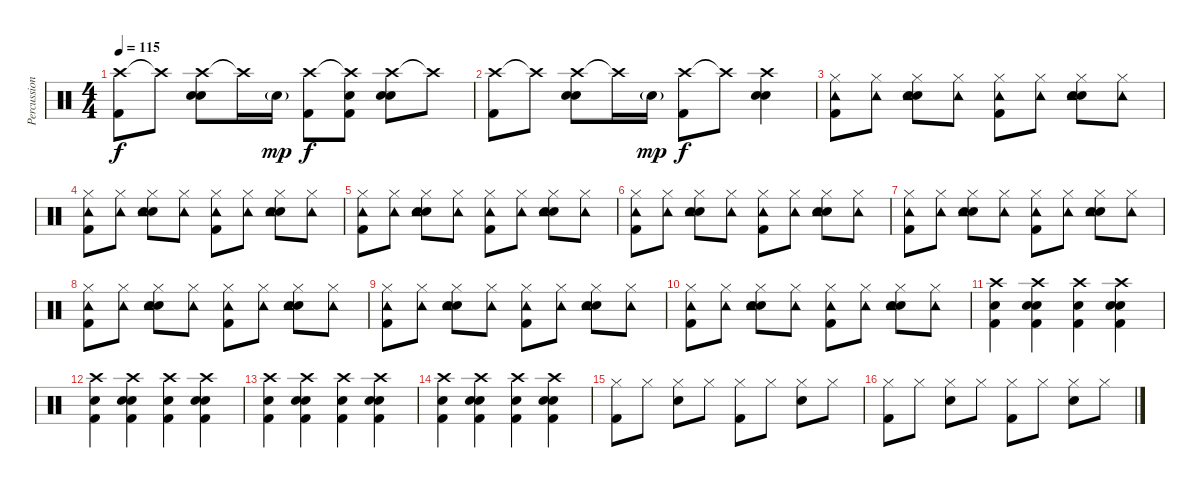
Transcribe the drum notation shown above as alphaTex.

\track ("Percussion" "Percussion") {instrument percussion}
\staff {score}
\articulation defaults
\ts (4 4)
\tempo 115
\clef neutral
\ks c
("Crash high (hit)" "Kick (hit) 2").8{dy f} "Crash high (hit)"{t}.8 ("Crash high (hit)" "Hand Clap (hit)" "Snare (hit) 2").8 "Crash high (hit)"{t}.16 "Snare (hit) 2"{g}.16{dy mp} ("Crash high (hit)" "Kick (hit) 2").8{dy f} ("Crash high (hit)"{t} "Hand Clap (hit)" "Kick (hit) 2").8 ("Crash high (hit)" "Hand Clap (hit)" "Snare (hit) 2").8 "Crash high (hit)"{t}.8 |
("Crash high (hit)" "Kick (hit) 2").8 "Crash high (hit)"{t}.8 ("Crash high (hit)" "Hand Clap (hit)" "Snare (hit) 2").8 "Crash high (hit)"{t}.16 "Snare (hit) 2"{g}.16{dy mp} ("Crash high (hit)" "Kick (hit) 2").8{dy f} "Crash high (hit)"{t}.8 ("Crash high (hit)" "Hand Clap (hit)" "Snare (hit) 2").4 |
("Hi-Hat (closed)" "Tambourine (hit)" "Kick (hit) 2").8 ("Hi-Hat (closed)" "Tambourine (hit)").8 ("Hi-Hat (closed)" "Hand Clap (hit)" "Snare (hit) 2" "Tambourine (hit)").8 ("Hi-Hat (closed)" "Tambourine (hit)").8 ("Hi-Hat (closed)" "Tambourine (hit)" "Kick (hit) 2").8 ("Hi-Hat (closed)" "Tambourine (hit)").8 ("Hi-Hat (closed)" "Hand Clap (hit)" "Snare (hit) 2" "Tambourine (hit)").8 ("Hi-Hat (closed)" "Tambourine (hit)").8 |
("Hi-Hat (closed)" "Tambourine (hit)" "Kick (hit) 2").8 ("Hi-Hat (closed)" "Tambourine (hit)").8 ("Hi-Hat (closed)" "Hand Clap (hit)" "Snare (hit) 2" "Tambourine (hit)").8 ("Hi-Hat (closed)" "Tambourine (hit)").8 ("Hi-Hat (closed)" "Tambourine (hit)" "Kick (hit) 2").8 ("Hi-Hat (closed)" "Tambourine (hit)").8 ("Hi-Hat (closed)" "Hand Clap (hit)" "Snare (hit) 2" "Tambourine (hit)").8 ("Hi-Hat (closed)" "Tambourine (hit)").8 |
("Hi-Hat (closed)" "Tambourine (hit)" "Kick (hit) 2").8 ("Hi-Hat (closed)" "Tambourine (hit)").8 ("Hi-Hat (closed)" "Hand Clap (hit)" "Snare (hit) 2" "Tambourine (hit)").8 ("Hi-Hat (closed)" "Tambourine (hit)").8 ("Hi-Hat (closed)" "Tambourine (hit)" "Kick (hit) 2").8 ("Hi-Hat (closed)" "Tambourine (hit)").8 ("Hi-Hat (closed)" "Hand Clap (hit)" "Snare (hit) 2" "Tambourine (hit)").8 ("Hi-Hat (closed)" "Tambourine (hit)").8 |
("Hi-Hat (closed)" "Tambourine (hit)" "Kick (hit) 2").8 ("Hi-Hat (closed)" "Tambourine (hit)").8 ("Hi-Hat (closed)" "Hand Clap (hit)" "Snare (hit) 2" "Tambourine (hit)").8 ("Hi-Hat (closed)" "Tambourine (hit)").8 ("Hi-Hat (closed)" "Tambourine (hit)" "Kick (hit) 2").8 ("Hi-Hat (closed)" "Tambourine (hit)").8 ("Hi-Hat (closed)" "Hand Clap (hit)" "Snare (hit) 2" "Tambourine (hit)").8 ("Hi-Hat (closed)" "Tambourine (hit)").8 |
("Hi-Hat (closed)" "Tambourine (hit)" "Kick (hit) 2").8 ("Hi-Hat (closed)" "Tambourine (hit)").8 ("Hi-Hat (closed)" "Hand Clap (hit)" "Snare (hit) 2" "Tambourine (hit)").8 ("Hi-Hat (closed)" "Tambourine (hit)").8 ("Hi-Hat (closed)" "Tambourine (hit)" "Kick (hit) 2").8 ("Hi-Hat (closed)" "Tambourine (hit)").8 ("Hi-Hat (closed)" "Hand Clap (hit)" "Snare (hit) 2" "Tambourine (hit)").8 ("Hi-Hat (closed)" "Tambourine (hit)").8 |
("Hi-Hat (closed)" "Tambourine (hit)" "Kick (hit) 2").8 ("Hi-Hat (closed)" "Tambourine (hit)").8 ("Hi-Hat (closed)" "Hand Clap (hit)" "Snare (hit) 2" "Tambourine (hit)").8 ("Hi-Hat (closed)" "Tambourine (hit)").8 ("Hi-Hat (closed)" "Tambourine (hit)" "Kick (hit) 2").8 ("Hi-Hat (closed)" "Tambourine (hit)").8 ("Hi-Hat (closed)" "Hand Clap (hit)" "Snare (hit) 2" "Tambourine (hit)").8 ("Hi-Hat (closed)" "Tambourine (hit)").8 |
("Hi-Hat (closed)" "Tambourine (hit)" "Kick (hit) 2").8 ("Hi-Hat (closed)" "Tambourine (hit)").8 ("Hi-Hat (closed)" "Hand Clap (hit)" "Snare (hit) 2" "Tambourine (hit)").8 ("Hi-Hat (closed)" "Tambourine (hit)").8 ("Hi-Hat (closed)" "Tambourine (hit)" "Kick (hit) 2").8 ("Hi-Hat (closed)" "Tambourine (hit)").8 ("Hi-Hat (closed)" "Hand Clap (hit)" "Snare (hit) 2" "Tambourine (hit)").8 ("Hi-Hat (closed)" "Tambourine (hit)").8 |
("Hi-Hat (closed)" "Tambourine (hit)" "Kick (hit) 2").8 ("Hi-Hat (closed)" "Tambourine (hit)").8 ("Hi-Hat (closed)" "Hand Clap (hit)" "Snare (hit) 2" "Tambourine (hit)").8 ("Hi-Hat (closed)" "Tambourine (hit)").8 ("Hi-Hat (closed)" "Tambourine (hit)" "Kick (hit) 2").8 ("Hi-Hat (closed)" "Tambourine (hit)").8 ("Hi-Hat (closed)" "Hand Clap (hit)" "Snare (hit) 2" "Tambourine (hit)").8 ("Hi-Hat (closed)" "Tambourine (hit)").8 |
("Crash high (hit)" "Snare (hit) 2" "Kick (hit) 2").4 ("Crash high (hit)" "Hand Clap (hit)" "Snare (hit) 2" "Kick (hit) 2").4 ("Crash high (hit)" "Snare (hit) 2" "Kick (hit) 2").4 ("Crash high (hit)" "Hand Clap (hit)" "Snare (hit) 2" "Kick (hit) 2").4 |
("Crash high (hit)" "Snare (hit) 2" "Kick (hit) 2").4 ("Crash high (hit)" "Hand Clap (hit)" "Snare (hit) 2" "Kick (hit) 2").4 ("Crash high (hit)" "Snare (hit) 2" "Kick (hit) 2").4 ("Crash high (hit)" "Hand Clap (hit)" "Snare (hit) 2" "Kick (hit) 2").4 |
("Crash high (hit)" "Snare (hit) 2" "Kick (hit) 2").4 ("Crash high (hit)" "Hand Clap (hit)" "Snare (hit) 2" "Kick (hit) 2").4 ("Crash high (hit)" "Snare (hit) 2" "Kick (hit) 2").4 ("Crash high (hit)" "Hand Clap (hit)" "Snare (hit) 2" "Kick (hit) 2").4 |
("Crash high (hit)" "Snare (hit) 2" "Kick (hit) 2").4 ("Crash high (hit)" "Hand Clap (hit)" "Snare (hit) 2" "Kick (hit) 2").4 ("Crash high (hit)" "Snare (hit) 2" "Kick (hit) 2").4 ("Crash high (hit)" "Hand Clap (hit)" "Snare (hit) 2" "Kick (hit) 2").4 |
("Hi-Hat (closed)" "Kick (hit) 2").8 "Hi-Hat (closed)".8 ("Hi-Hat (closed)" "Snare (hit) 2").8 "Hi-Hat (closed)".8 ("Hi-Hat (closed)" "Kick (hit) 2").8 "Hi-Hat (closed)".8 ("Hi-Hat (closed)" "Snare (hit) 2").8 "Hi-Hat (closed)".8 |
("Hi-Hat (closed)" "Kick (hit) 2").8 "Hi-Hat (closed)".8 ("Hi-Hat (closed)" "Snare (hit) 2").8 "Hi-Hat (closed)".8 ("Hi-Hat (closed)" "Kick (hit) 2").8 "Hi-Hat (closed)".8 ("Hi-Hat (closed)" "Snare (hit) 2").8 "Hi-Hat (closed)".8
